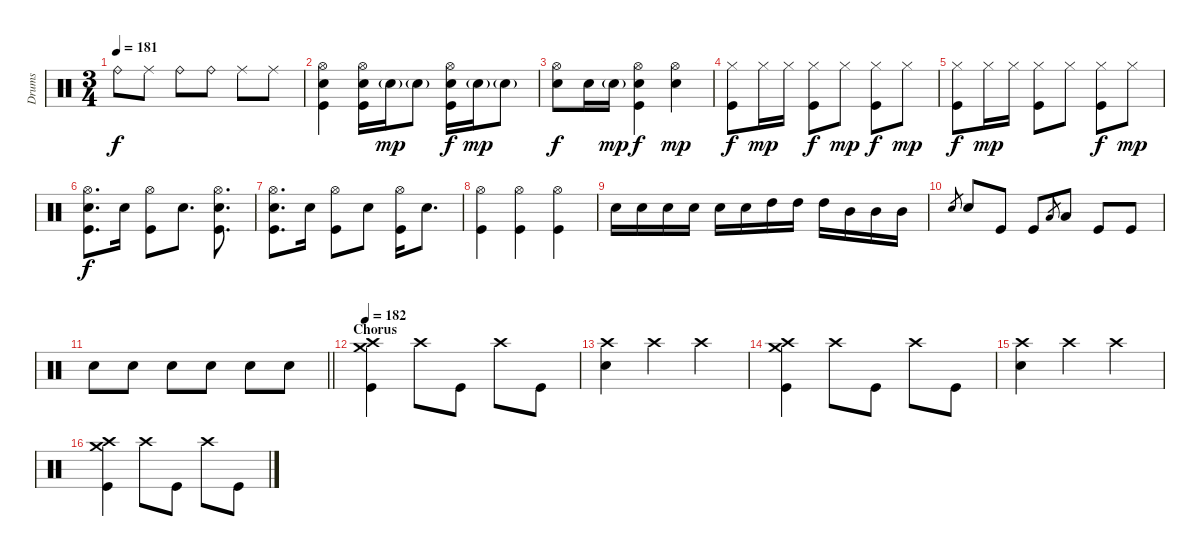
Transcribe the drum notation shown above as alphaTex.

\track ("Drums" "Drums") {instrument percussion}
\staff {score}
\articulation defaults
\ts (3 4)
\tempo 181
\clef neutral
\ks c "Ride (bell)".8{dy f} "Ride (middle)".8 "Ride (bell)".8 "Ride (bell)".8 "Ride (middle)".8 "Ride (middle)".8
|
("Hi-Hat (open)" "Electric Snare (hit)" "Kick (hit)").4 ("Hi-Hat (open)" "Electric Snare (hit)" "Kick (hit)").16 "Electric Snare (hit)"{g}.16{dy mp} "Electric Snare (hit)"{g}.8 ("Hi-Hat (open)" "Electric Snare (hit)" "Kick (hit)").16{dy f} "Electric Snare (hit)"{g}.16{dy mp} "Electric Snare (hit)"{g}.8 |
("Hi-Hat (open)" "Electric Snare (hit)").8{dy f} "Electric Snare (hit)".16 "Electric Snare (hit)"{g}.16{dy mp} ("Hi-Hat (open)" "Electric Snare (hit)" "Kick (hit)").4{dy f} ("Hi-Hat (open)" "Electric Snare (hit)").4{dy mp} |
("Hi-Hat (closed)" "Kick (hit)").8{dy f} "Hi-Hat (closed)".16{dy mp} "Hi-Hat (closed)".16 ("Hi-Hat (closed)" "Kick (hit)").8{dy f} "Hi-Hat (closed)".8{dy mp} ("Hi-Hat (closed)" "Kick (hit)").8{dy f} "Hi-Hat (closed)".8{dy mp} |
("Hi-Hat (closed)" "Kick (hit)").8{dy f} "Hi-Hat (closed)".16{dy mp} "Hi-Hat (closed)".16 ("Hi-Hat (closed)" "Kick (hit)").8 "Hi-Hat (closed)".8 ("Hi-Hat (closed)" "Kick (hit)").8{dy f} "Hi-Hat (closed)".8{dy mp} |
("Hi-Hat (open)" "Electric Snare (hit)" "Kick (hit)").8{d dy f} "Electric Snare (hit)".16 ("Hi-Hat (open)" "Kick (hit)").8 "Electric Snare (hit)".8{d} ("Hi-Hat (open)" "Electric Snare (hit)" "Kick (hit)").8{d} |
("Hi-Hat (open)" "Electric Snare (hit)" "Kick (hit)").8{d} "Electric Snare (hit)".16 ("Hi-Hat (open)" "Kick (hit)").8 "Electric Snare (hit)".8 ("Hi-Hat (open)" "Kick (hit)").16 "Electric Snare (hit)".8{d} |
("Hi-Hat (open)" "Kick (hit)").4 ("Hi-Hat (open)" "Kick (hit)").4 ("Hi-Hat (open)" "Kick (hit)").4 |
"Electric Snare (hit)".16 "Electric Snare (hit)".16 "Electric Snare (hit)".16 "Electric Snare (hit)".16 "Electric Snare (hit)".16 "Electric Snare (hit)".16 "High Tom (hit)".16 "High Tom (hit)".16 "High Tom (hit)".16 "Mid Tom (hit)".16 "Mid Tom (hit)".16 "Mid Tom (hit)".16 |
"Electric Snare (hit)".8{gr} "Electric Snare (hit)".8 "Kick (hit)".8 "Kick (hit)".8 "Low Floor Tom (hit)".8{gr} "Low Floor Tom (hit)".8 "Kick (hit)".8 "Kick (hit)".8 |
\barLineRight lightlight "Electric Snare (hit)".8 "Electric Snare (hit)".8 "Electric Snare (hit)".8 "Electric Snare (hit)".8 "Electric Snare (hit)".8 "Electric Snare (hit)".8
|
\section ("" "Chorus")
\tempo 182
("Crash high (hit)" "Crash medium (hit)" "Kick (hit)").4 "Crash high (hit)".8 "Kick (hit)".8 "Crash high (hit)".8 "Kick (hit)".8 |
("Crash high (hit)" "Electric Snare (hit)").4 "Crash high (hit)".4 "Crash high (hit)".4 |
("Crash high (hit)" "Crash medium (hit)" "Kick (hit)").4 "Crash high (hit)".8 "Kick (hit)".8 "Crash high (hit)".8 "Kick (hit)".8 |
("Crash high (hit)" "Electric Snare (hit)").4 "Crash high (hit)".4 "Crash high (hit)".4 |
("Crash high (hit)" "Crash medium (hit)" "Kick (hit)").4 "Crash high (hit)".8 "Kick (hit)".8 "Crash high (hit)".8 "Kick (hit)".8
